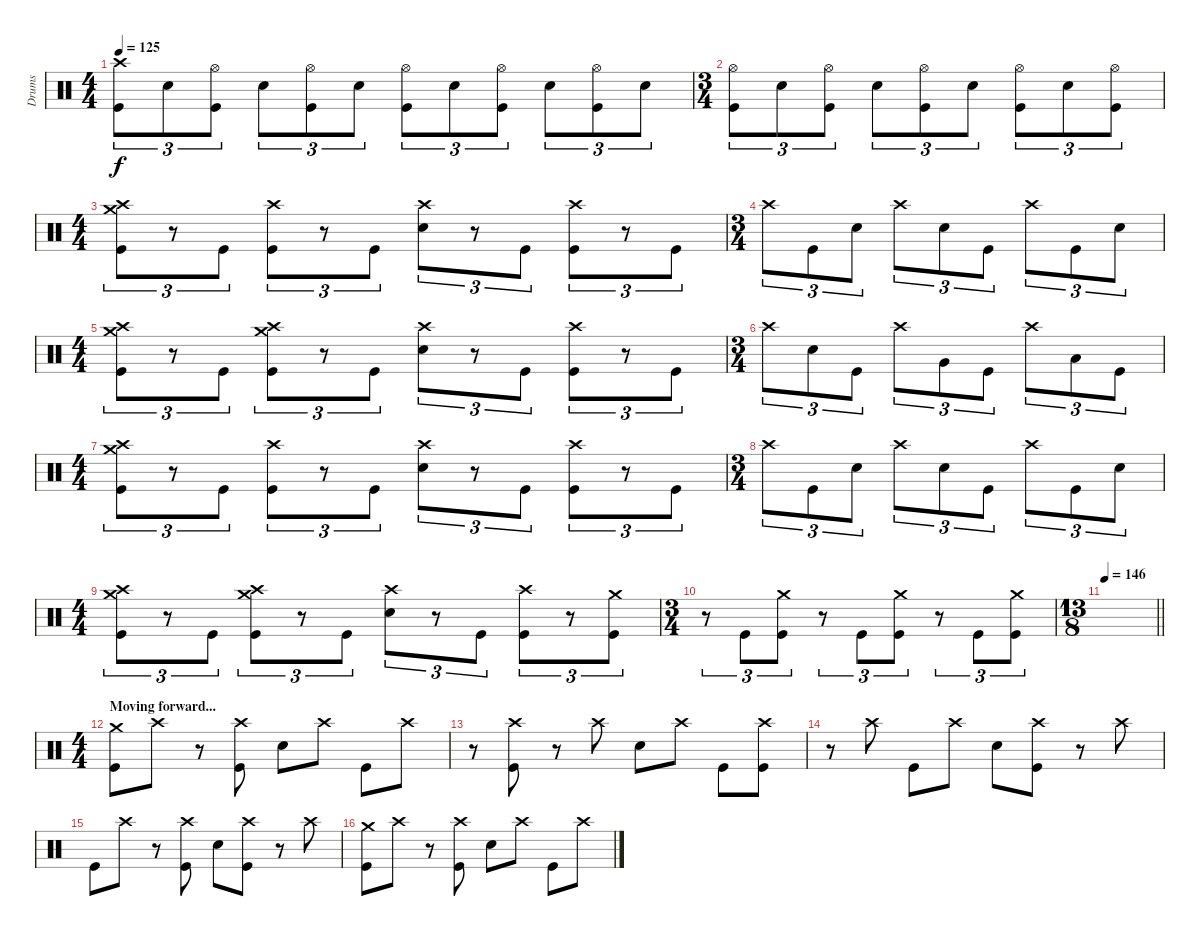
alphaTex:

\track ("Drums" "Drums") {instrument percussion}
\staff {score}
\articulation defaults
\ts (4 4)
\tempo 125
\clef neutral
\ks c
("Crash high (hit)" "Kick (hit)").8{tu (3 2) dy f} "Electric Snare (hit)".8{tu (3 2)} ("Hi-Hat (open)" "Kick (hit)").8{tu (3 2)} "Electric Snare (hit)".8{tu (3 2)} ("Hi-Hat (open)" "Kick (hit)").8{tu (3 2)} "Electric Snare (hit)".8{tu (3 2)} ("Hi-Hat (open)" "Kick (hit)").8{tu (3 2)} "Electric Snare (hit)".8{tu (3 2)} ("Hi-Hat (open)" "Kick (hit)").8{tu (3 2)} "Electric Snare (hit)".8{tu (3 2)} ("Hi-Hat (open)" "Kick (hit)").8{tu (3 2)} "Electric Snare (hit)".8{tu (3 2)} |
\ts (3 4)
("Hi-Hat (open)" "Kick (hit)").8{tu (3 2)} "Electric Snare (hit)".8{tu (3 2)} ("Hi-Hat (open)" "Kick (hit)").8{tu (3 2)} "Electric Snare (hit)".8{tu (3 2)} ("Hi-Hat (open)" "Kick (hit)").8{tu (3 2)} "Electric Snare (hit)".8{tu (3 2)} ("Hi-Hat (open)" "Kick (hit)").8{tu (3 2)} "Electric Snare (hit)".8{tu (3 2)} ("Hi-Hat (open)" "Kick (hit)").8{tu (3 2)} |
\ts (4 4)
("Crash high (hit)" "Crash medium (hit)" "Kick (hit)").8{tu (3 2)} r.8{tu (3 2)} "Kick (hit)".8{tu (3 2)} ("Crash high (hit)" "Kick (hit)").8{tu (3 2)} r.8{tu (3 2)} "Kick (hit)".8{tu (3 2)} ("Crash high (hit)" "Electric Snare (hit)").8{tu (3 2)} r.8{tu (3 2)} "Kick (hit)".8{tu (3 2)} ("Crash high (hit)" "Kick (hit)").8{tu (3 2)} r.8{tu (3 2)} "Kick (hit)".8{tu (3 2)} |
\ts (3 4)
"Crash high (hit)".8{tu (3 2)} "Kick (hit)".8{tu (3 2)} "Electric Snare (hit)".8{tu (3 2)} "Crash high (hit)".8{tu (3 2)} "Electric Snare (hit)".8{tu (3 2)} "Kick (hit)".8{tu (3 2)} "Crash high (hit)".8{tu (3 2)} "Kick (hit)".8{tu (3 2)} "Electric Snare (hit)".8{tu (3 2)} |
\ts (4 4)
("Crash high (hit)" "Crash medium (hit)" "Kick (hit)").8{tu (3 2)} r.8{tu (3 2)} "Kick (hit)".8{tu (3 2)} ("Crash high (hit)" "Crash medium (hit)" "Kick (hit)").8{tu (3 2)} r.8{tu (3 2)} "Kick (hit)".8{tu (3 2)} ("Crash high (hit)" "Electric Snare (hit)").8{tu (3 2)} r.8{tu (3 2)} "Kick (hit)".8{tu (3 2)} ("Crash high (hit)" "Kick (hit)").8{tu (3 2)} r.8{tu (3 2)} "Kick (hit)".8{tu (3 2)} |
\ts (3 4)
"Crash high (hit)".8{tu (3 2)} "Electric Snare (hit)".8{tu (3 2)} "Kick (hit)".8{tu (3 2)} "Crash high (hit)".8{tu (3 2)} "Very Low Tom (hit)".8{tu (3 2)} "Kick (hit)".8{tu (3 2)} "Crash high (hit)".8{tu (3 2)} "Low Floor Tom (hit)".8{tu (3 2)} "Kick (hit)".8{tu (3 2)} |
\ts (4 4)
("Crash high (hit)" "Crash medium (hit)" "Kick (hit)").8{tu (3 2)} r.8{tu (3 2)} "Kick (hit)".8{tu (3 2)} ("Crash high (hit)" "Kick (hit)").8{tu (3 2)} r.8{tu (3 2)} "Kick (hit)".8{tu (3 2)} ("Crash high (hit)" "Electric Snare (hit)").8{tu (3 2)} r.8{tu (3 2)} "Kick (hit)".8{tu (3 2)} ("Crash high (hit)" "Kick (hit)").8{tu (3 2)} r.8{tu (3 2)} "Kick (hit)".8{tu (3 2)} |
\ts (3 4)
"Crash high (hit)".8{tu (3 2)} "Kick (hit)".8{tu (3 2)} "Electric Snare (hit)".8{tu (3 2)} "Crash high (hit)".8{tu (3 2)} "Electric Snare (hit)".8{tu (3 2)} "Kick (hit)".8{tu (3 2)} "Crash high (hit)".8{tu (3 2)} "Kick (hit)".8{tu (3 2)} "Electric Snare (hit)".8{tu (3 2)} |
\ts (4 4)
("Crash high (hit)" "Crash medium (hit)" "Kick (hit)").8{tu (3 2)} r.8{tu (3 2)} "Kick (hit)".8{tu (3 2)} ("Crash high (hit)" "Crash medium (hit)" "Kick (hit)").8{tu (3 2)} r.8{tu (3 2)} "Kick (hit)".8{tu (3 2)} ("Crash high (hit)" "Electric Snare (hit)").8{tu (3 2)} r.8{tu (3 2)} "Kick (hit)".8{tu (3 2)} ("Crash high (hit)" "Kick (hit)").8{tu (3 2)} r.8{tu (3 2)} ("Crash medium (hit)" "Kick (hit)").8{tu (3 2)} |
\ts (3 4)
r.8{tu (3 2)} "Kick (hit)".8{tu (3 2)} ("Crash medium (hit)" "Kick (hit)").8{tu (3 2)} r.8{tu (3 2)} "Kick (hit)".8{tu (3 2)} ("Crash medium (hit)" "Kick (hit)").8{tu (3 2)} r.8{tu (3 2)} "Kick (hit)".8{tu (3 2)} ("Crash medium (hit)" "Kick (hit)").8{tu (3 2)} |
\ts (13 8)
\tempo 146
\barLineRight lightlight
|
\ts (4 4)
\section ("" "Moving forward...")
("Crash medium (hit)" "Kick (hit)").8 "Crash high (hit)".8 r.8 ("Crash high (hit)" "Kick (hit)").8 "Electric Snare (hit)".8 "Crash high (hit)".8 "Kick (hit)".8 "Crash high (hit)".8 |
r.8 ("Crash high (hit)" "Kick (hit)").8 r.8 "Crash high (hit)".8 "Electric Snare (hit)".8 "Crash high (hit)".8 "Kick (hit)".8 ("Crash high (hit)" "Kick (hit)").8 |
r.8 "Crash high (hit)".8 "Kick (hit)".8 "Crash high (hit)".8 "Electric Snare (hit)".8 ("Crash high (hit)" "Kick (hit)").8 r.8 "Crash high (hit)".8 |
"Kick (hit)".8 "Crash high (hit)".8 r.8 ("Crash high (hit)" "Kick (hit)").8 "Electric Snare (hit)".8 ("Crash high (hit)" "Kick (hit)").8 r.8 "Crash high (hit)".8 |
("Crash medium (hit)" "Kick (hit)").8 "Crash high (hit)".8 r.8 ("Crash high (hit)" "Kick (hit)").8 "Electric Snare (hit)".8 "Crash high (hit)".8 "Kick (hit)".8 "Crash high (hit)".8
